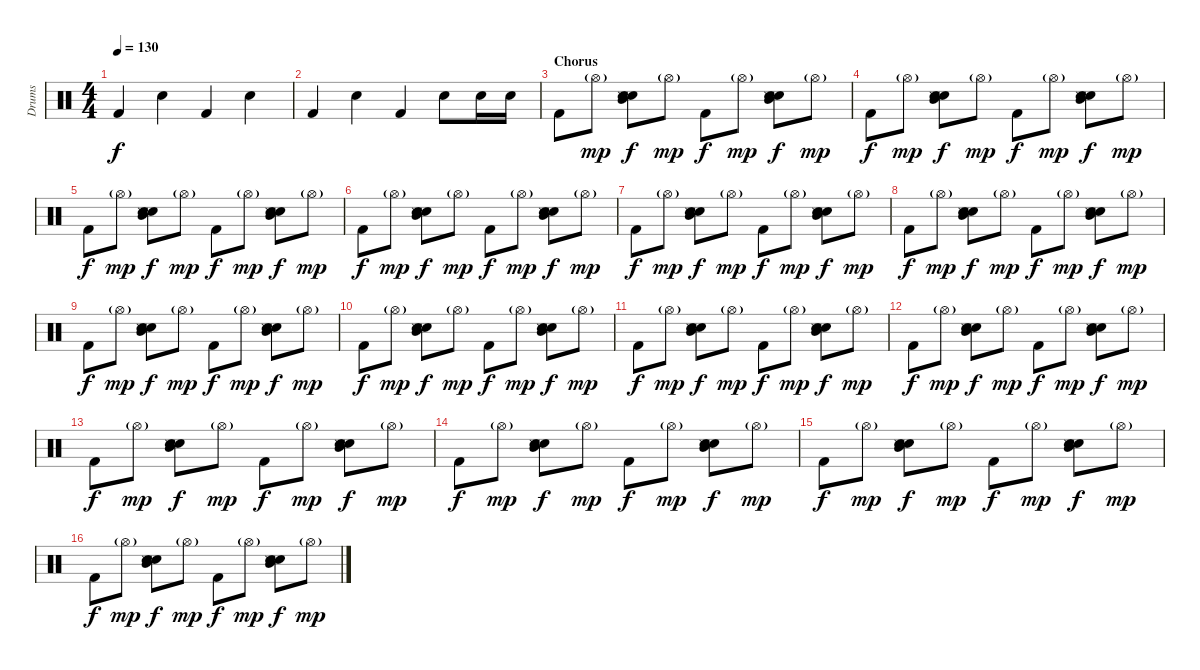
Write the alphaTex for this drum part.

\track ("Drums" "Drums") {instrument percussion}
\staff {score}
\articulation defaults
\ts (4 4)
\tempo 130
\clef neutral
\ks c "Kick (hit) 2".4{dy f} "Snare (hit) 2".4 "Kick (hit) 2".4 "Snare (hit) 2".4
|
"Kick (hit) 2".4 "Snare (hit) 2".4 "Kick (hit) 2".4 "Snare (hit) 2".8 "Electric Snare (hit)".16 "Electric Snare (hit)".16 |
\section ("" "Chorus")
"Kick (hit) 2".8 "Hi-Hat (open)"{g}.8{dy mp} ("Hand Clap (hit)" "Snare (side stick) 3" "Electric Snare (hit)" "Mid Tom (hit)").8{dy f} "Hi-Hat (open)"{g}.8{dy mp} "Kick (hit) 2".8{dy f} "Hi-Hat (open)"{g}.8{dy mp} ("Hand Clap (hit)" "Snare (side stick) 3" "Electric Snare (hit)" "Mid Tom (hit)").8{dy f} "Hi-Hat (open)"{g}.8{dy mp} |
"Kick (hit) 2".8{dy f} "Hi-Hat (open)"{g}.8{dy mp} ("Hand Clap (hit)" "Snare (side stick) 3" "Electric Snare (hit)" "Mid Tom (hit)").8{dy f} "Hi-Hat (open)"{g}.8{dy mp} "Kick (hit) 2".8{dy f} "Hi-Hat (open)"{g}.8{dy mp} ("Hand Clap (hit)" "Snare (side stick) 3" "Electric Snare (hit)" "Mid Tom (hit)").8{dy f} "Hi-Hat (open)"{g}.8{dy mp} |
"Kick (hit) 2".8{dy f} "Hi-Hat (open)"{g}.8{dy mp} ("Hand Clap (hit)" "Snare (side stick) 3" "Electric Snare (hit)" "Mid Tom (hit)").8{dy f} "Hi-Hat (open)"{g}.8{dy mp} "Kick (hit) 2".8{dy f} "Hi-Hat (open)"{g}.8{dy mp} ("Hand Clap (hit)" "Snare (side stick) 3" "Electric Snare (hit)" "Mid Tom (hit)").8{dy f} "Hi-Hat (open)"{g}.8{dy mp} |
"Kick (hit) 2".8{dy f} "Hi-Hat (open)"{g}.8{dy mp} ("Hand Clap (hit)" "Snare (side stick) 3" "Electric Snare (hit)" "Mid Tom (hit)").8{dy f} "Hi-Hat (open)"{g}.8{dy mp} "Kick (hit) 2".8{dy f} "Hi-Hat (open)"{g}.8{dy mp} ("Hand Clap (hit)" "Snare (side stick) 3" "Electric Snare (hit)" "Mid Tom (hit)").8{dy f} "Hi-Hat (open)"{g}.8{dy mp} |
"Kick (hit) 2".8{dy f} "Hi-Hat (open)"{g}.8{dy mp} ("Hand Clap (hit)" "Snare (side stick) 3" "Electric Snare (hit)" "Mid Tom (hit)").8{dy f} "Hi-Hat (open)"{g}.8{dy mp} "Kick (hit) 2".8{dy f} "Hi-Hat (open)"{g}.8{dy mp} ("Hand Clap (hit)" "Snare (side stick) 3" "Electric Snare (hit)" "Mid Tom (hit)").8{dy f} "Hi-Hat (open)"{g}.8{dy mp} |
"Kick (hit) 2".8{dy f} "Hi-Hat (open)"{g}.8{dy mp} ("Hand Clap (hit)" "Snare (side stick) 3" "Electric Snare (hit)" "Mid Tom (hit)").8{dy f} "Hi-Hat (open)"{g}.8{dy mp} "Kick (hit) 2".8{dy f} "Hi-Hat (open)"{g}.8{dy mp} ("Hand Clap (hit)" "Snare (side stick) 3" "Electric Snare (hit)" "Mid Tom (hit)").8{dy f} "Hi-Hat (open)"{g}.8{dy mp} |
"Kick (hit) 2".8{dy f} "Hi-Hat (open)"{g}.8{dy mp} ("Hand Clap (hit)" "Snare (side stick) 3" "Electric Snare (hit)" "Mid Tom (hit)").8{dy f} "Hi-Hat (open)"{g}.8{dy mp} "Kick (hit) 2".8{dy f} "Hi-Hat (open)"{g}.8{dy mp} ("Hand Clap (hit)" "Snare (side stick) 3" "Electric Snare (hit)" "Mid Tom (hit)").8{dy f} "Hi-Hat (open)"{g}.8{dy mp} |
"Kick (hit) 2".8{dy f} "Hi-Hat (open)"{g}.8{dy mp} ("Hand Clap (hit)" "Snare (side stick) 3" "Electric Snare (hit)" "Mid Tom (hit)").8{dy f} "Hi-Hat (open)"{g}.8{dy mp} "Kick (hit) 2".8{dy f} "Hi-Hat (open)"{g}.8{dy mp} ("Hand Clap (hit)" "Snare (side stick) 3" "Electric Snare (hit)" "Mid Tom (hit)").8{dy f} "Hi-Hat (open)"{g}.8{dy mp} |
"Kick (hit) 2".8{dy f} "Hi-Hat (open)"{g}.8{dy mp} ("Hand Clap (hit)" "Snare (side stick) 3" "Electric Snare (hit)" "Mid Tom (hit)").8{dy f} "Hi-Hat (open)"{g}.8{dy mp} "Kick (hit) 2".8{dy f} "Hi-Hat (open)"{g}.8{dy mp} ("Hand Clap (hit)" "Snare (side stick) 3" "Electric Snare (hit)" "Mid Tom (hit)").8{dy f} "Hi-Hat (open)"{g}.8{dy mp} |
"Kick (hit) 2".8{dy f} "Hi-Hat (open)"{g}.8{dy mp} ("Hand Clap (hit)" "Snare (side stick) 3" "Electric Snare (hit)" "Mid Tom (hit)").8{dy f} "Hi-Hat (open)"{g}.8{dy mp} "Kick (hit) 2".8{dy f} "Hi-Hat (open)"{g}.8{dy mp} ("Hand Clap (hit)" "Snare (side stick) 3" "Electric Snare (hit)" "Mid Tom (hit)").8{dy f} "Hi-Hat (open)"{g}.8{dy mp} |
"Kick (hit) 2".8{dy f} "Hi-Hat (open)"{g}.8{dy mp} ("Hand Clap (hit)" "Snare (side stick) 3" "Electric Snare (hit)" "Mid Tom (hit)").8{dy f} "Hi-Hat (open)"{g}.8{dy mp} "Kick (hit) 2".8{dy f} "Hi-Hat (open)"{g}.8{dy mp} ("Hand Clap (hit)" "Snare (side stick) 3" "Electric Snare (hit)" "Mid Tom (hit)").8{dy f} "Hi-Hat (open)"{g}.8{dy mp} |
"Kick (hit) 2".8{dy f} "Hi-Hat (open)"{g}.8{dy mp} ("Hand Clap (hit)" "Snare (side stick) 3" "Electric Snare (hit)" "Mid Tom (hit)").8{dy f} "Hi-Hat (open)"{g}.8{dy mp} "Kick (hit) 2".8{dy f} "Hi-Hat (open)"{g}.8{dy mp} ("Hand Clap (hit)" "Snare (side stick) 3" "Electric Snare (hit)" "Mid Tom (hit)").8{dy f} "Hi-Hat (open)"{g}.8{dy mp} |
"Kick (hit) 2".8{dy f} "Hi-Hat (open)"{g}.8{dy mp} ("Hand Clap (hit)" "Snare (side stick) 3" "Electric Snare (hit)" "Mid Tom (hit)").8{dy f} "Hi-Hat (open)"{g}.8{dy mp} "Kick (hit) 2".8{dy f} "Hi-Hat (open)"{g}.8{dy mp} ("Hand Clap (hit)" "Snare (side stick) 3" "Electric Snare (hit)" "Mid Tom (hit)").8{dy f} "Hi-Hat (open)"{g}.8{dy mp} |
"Kick (hit) 2".8{dy f} "Hi-Hat (open)"{g}.8{dy mp} ("Hand Clap (hit)" "Snare (side stick) 3" "Electric Snare (hit)" "Mid Tom (hit)").8{dy f} "Hi-Hat (open)"{g}.8{dy mp} "Kick (hit) 2".8{dy f} "Hi-Hat (open)"{g}.8{dy mp} ("Hand Clap (hit)" "Snare (side stick) 3" "Electric Snare (hit)" "Mid Tom (hit)").8{dy f} "Hi-Hat (open)"{g}.8{dy mp}
